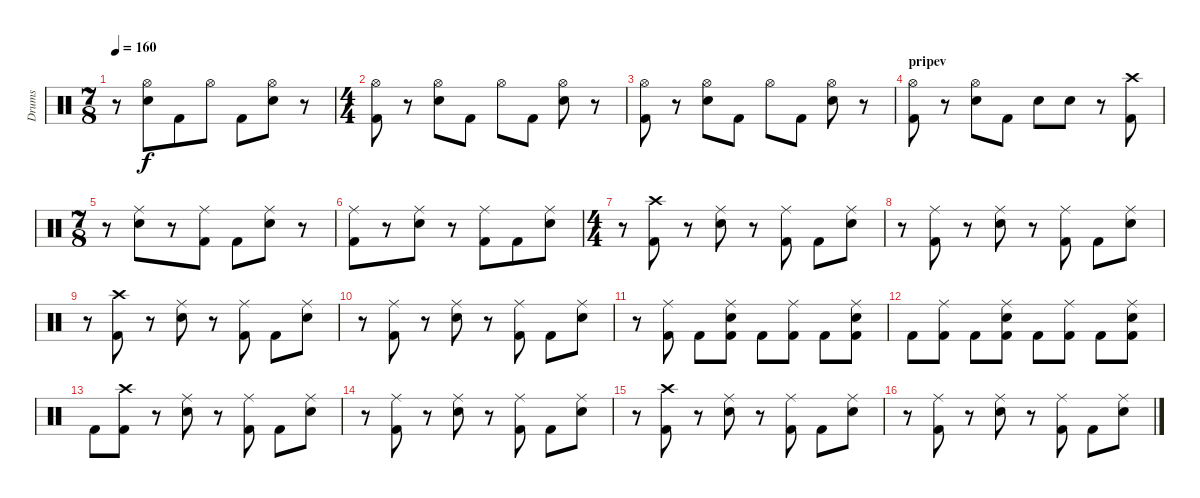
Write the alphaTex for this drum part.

\track ("Drums" "Drums") {instrument percussion}
\staff {score}
\articulation defaults
\ts (7 8)
\tempo 160
\clef neutral
\ks c
r.8{dy f} ("Snare (hit) 2" "Hi-Hat (open)").8 "Kick (hit) 2".8 "Hi-Hat (open)".8 "Kick (hit) 2".8 ("Snare (hit) 2" "Hi-Hat (open)").8 r.8 |
\ts (4 4)
("Kick (hit) 2" "Hi-Hat (open)").8 r.8 ("Snare (hit) 2" "Hi-Hat (open)").8 "Kick (hit) 2".8 "Hi-Hat (open)".8 "Kick (hit) 2".8 ("Snare (hit) 2" "Hi-Hat (open)").8 r.8 |
("Kick (hit) 2" "Hi-Hat (open)").8 r.8 ("Snare (hit) 2" "Hi-Hat (open)").8 "Kick (hit) 2".8 "Hi-Hat (open)".8 "Kick (hit) 2".8 ("Snare (hit) 2" "Hi-Hat (open)").8 r.8 |
\section ("" "pripev")
("Kick (hit) 2" "Hi-Hat (open)").8 r.8 ("Snare (hit) 2" "Hi-Hat (open)").8 "Kick (hit) 2".8 "Snare (hit) 2".8 "Snare (hit) 2".8 r.8 ("Kick (hit) 2" "Crash high (hit)").8 |
\ts (7 8)
r.8 ("Snare (hit) 2" "Ride (middle)").8 r.8 ("Kick (hit) 2" "Ride (middle)").8 "Kick (hit) 2".8 ("Snare (hit) 2" "Ride (middle)").8 r.8 |
("Kick (hit) 2" "Ride (middle)").8 r.8 ("Snare (hit) 2" "Ride (middle)").8 r.8 ("Kick (hit) 2" "Ride (middle)").8 "Kick (hit) 2".8 ("Snare (hit) 2" "Ride (middle)").8 |
\ts (4 4)
r.8 ("Kick (hit) 2" "Crash high (hit)").8 r.8 ("Snare (hit) 2" "Ride (middle)").8 r.8 ("Kick (hit) 2" "Ride (middle)").8 "Kick (hit) 2".8 ("Snare (hit) 2" "Ride (middle)").8 |
r.8 ("Kick (hit) 2" "Ride (middle)").8 r.8 ("Snare (hit) 2" "Ride (middle)").8 r.8 ("Kick (hit) 2" "Ride (middle)").8 "Kick (hit) 2".8 ("Snare (hit) 2" "Ride (middle)").8 |
r.8 ("Kick (hit) 2" "Crash high (hit)").8 r.8 ("Snare (hit) 2" "Ride (middle)").8 r.8 ("Kick (hit) 2" "Ride (middle)").8 "Kick (hit) 2".8 ("Snare (hit) 2" "Ride (middle)").8 |
r.8 ("Kick (hit) 2" "Ride (middle)").8 r.8 ("Snare (hit) 2" "Ride (middle)").8 r.8 ("Kick (hit) 2" "Ride (middle)").8 "Kick (hit) 2".8 ("Snare (hit) 2" "Ride (middle)").8 |
r.8 ("Kick (hit) 2" "Ride (middle)").8 "Kick (hit) 2".8 ("Snare (hit) 2" "Kick (hit) 2" "Ride (middle)").8 "Kick (hit) 2".8 ("Kick (hit) 2" "Ride (middle)").8 "Kick (hit) 2".8 ("Snare (hit) 2" "Kick (hit) 2" "Ride (middle)").8 |
"Kick (hit) 2".8 ("Kick (hit) 2" "Ride (middle)").8 "Kick (hit) 2".8 ("Snare (hit) 2" "Kick (hit) 2" "Ride (middle)").8 "Kick (hit) 2".8 ("Kick (hit) 2" "Ride (middle)").8 "Kick (hit) 2".8 ("Snare (hit) 2" "Kick (hit) 2" "Ride (middle)").8 |
"Kick (hit) 2".8 ("Kick (hit) 2" "Crash high (hit)").8 r.8 ("Snare (hit) 2" "Ride (middle)").8 r.8 ("Kick (hit) 2" "Ride (middle)").8 "Kick (hit) 2".8 ("Snare (hit) 2" "Ride (middle)").8 |
r.8 ("Kick (hit) 2" "Ride (middle)").8 r.8 ("Snare (hit) 2" "Ride (middle)").8 r.8 ("Kick (hit) 2" "Ride (middle)").8 "Kick (hit) 2".8 ("Snare (hit) 2" "Ride (middle)").8 |
r.8 ("Kick (hit) 2" "Crash high (hit)").8 r.8 ("Snare (hit) 2" "Ride (middle)").8 r.8 ("Kick (hit) 2" "Ride (middle)").8 "Kick (hit) 2".8 ("Snare (hit) 2" "Ride (middle)").8 |
r.8 ("Kick (hit) 2" "Ride (middle)").8 r.8 ("Snare (hit) 2" "Ride (middle)").8 r.8 ("Kick (hit) 2" "Ride (middle)").8 "Kick (hit) 2".8 ("Snare (hit) 2" "Ride (middle)").8
